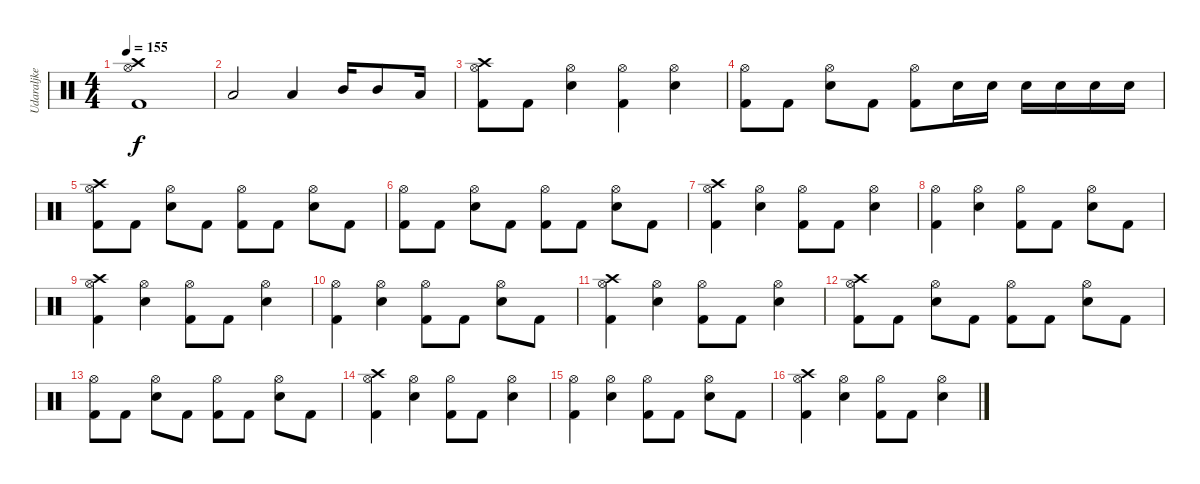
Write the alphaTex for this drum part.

\track ("Udaraljke" "Udaraljke") {instrument percussion}
\staff {score}
\articulation defaults
\ts (4 4)
\tempo 155
\clef neutral
\ks c
("Crash high (hit)" "Hi-Hat (open)" "Kick (hit) 2").1{dy f} |
"Low Tom (hit)".2 "Low Tom (hit)".4 "Mid Tom (hit)".16 "Mid Tom (hit)".8 "Low Tom (hit)".16 |
("Crash high (hit)" "Hi-Hat (open)" "Kick (hit) 2").8 "Kick (hit) 2".8 ("Hi-Hat (open)" "Electric Snare (hit)").4 ("Hi-Hat (open)" "Kick (hit) 2").4 ("Hi-Hat (open)" "Electric Snare (hit)").4 |
("Hi-Hat (open)" "Kick (hit) 2").8 "Kick (hit) 2".8 ("Electric Snare (hit)" "Hi-Hat (open)").8 "Kick (hit) 2".8 ("Hi-Hat (open)" "Kick (hit) 2").8 "Snare (hit) 2".16 "Snare (hit) 2".16 "Snare (hit) 2".16 "Snare (hit) 2".16 "Snare (hit) 2".16 "Snare (hit) 2".16 |
("Hi-Hat (open)" "Kick (hit) 2" "Crash high (hit)").8 "Kick (hit) 2".8 ("Hi-Hat (open)" "Electric Snare (hit)").8 "Kick (hit) 2".8 ("Hi-Hat (open)" "Kick (hit) 2").8 "Kick (hit) 2".8 ("Hi-Hat (open)" "Electric Snare (hit)").8 "Kick (hit) 2".8 |
("Hi-Hat (open)" "Kick (hit) 2").8 "Kick (hit) 2".8 ("Hi-Hat (open)" "Electric Snare (hit)").8 "Kick (hit) 2".8 ("Hi-Hat (open)" "Kick (hit) 2").8 "Kick (hit) 2".8 ("Hi-Hat (open)" "Electric Snare (hit)").8 "Kick (hit) 2".8 |
("Crash high (hit)" "Hi-Hat (open)" "Kick (hit) 2").4 ("Hi-Hat (open)" "Electric Snare (hit)").4 ("Hi-Hat (open)" "Kick (hit) 2").8 "Kick (hit) 2".8 ("Hi-Hat (open)" "Electric Snare (hit)").4 |
("Hi-Hat (open)" "Kick (hit) 2").4 ("Hi-Hat (open)" "Electric Snare (hit)").4 ("Hi-Hat (open)" "Kick (hit) 2").8 "Kick (hit) 2".8 ("Hi-Hat (open)" "Electric Snare (hit)").8 "Kick (hit) 2".8 |
("Crash high (hit)" "Hi-Hat (open)" "Kick (hit) 2").4 ("Hi-Hat (open)" "Electric Snare (hit)").4 ("Hi-Hat (open)" "Kick (hit) 2").8 "Kick (hit) 2".8 ("Hi-Hat (open)" "Electric Snare (hit)").4 |
("Hi-Hat (open)" "Kick (hit) 2").4 ("Hi-Hat (open)" "Electric Snare (hit)").4 ("Hi-Hat (open)" "Kick (hit) 2").8 "Kick (hit) 2".8 ("Hi-Hat (open)" "Electric Snare (hit)").8 "Kick (hit) 2".8 |
("Crash high (hit)" "Hi-Hat (open)" "Kick (hit) 2").4 ("Hi-Hat (open)" "Electric Snare (hit)").4 ("Hi-Hat (open)" "Kick (hit) 2").8 "Kick (hit) 2".8 ("Hi-Hat (open)" "Electric Snare (hit)").4 |
("Hi-Hat (open)" "Kick (hit) 2" "Crash high (hit)").8 "Kick (hit) 2".8 ("Hi-Hat (open)" "Electric Snare (hit)").8 "Kick (hit) 2".8 ("Hi-Hat (open)" "Kick (hit) 2").8 "Kick (hit) 2".8 ("Hi-Hat (open)" "Electric Snare (hit)").8 "Kick (hit) 2".8 |
("Hi-Hat (open)" "Kick (hit) 2").8 "Kick (hit) 2".8 ("Hi-Hat (open)" "Electric Snare (hit)").8 "Kick (hit) 2".8 ("Hi-Hat (open)" "Kick (hit) 2").8 "Kick (hit) 2".8 ("Hi-Hat (open)" "Electric Snare (hit)").8 "Kick (hit) 2".8 |
("Crash high (hit)" "Hi-Hat (open)" "Kick (hit) 2").4 ("Hi-Hat (open)" "Electric Snare (hit)").4 ("Hi-Hat (open)" "Kick (hit) 2").8 "Kick (hit) 2".8 ("Hi-Hat (open)" "Electric Snare (hit)").4 |
("Hi-Hat (open)" "Kick (hit) 2").4 ("Hi-Hat (open)" "Electric Snare (hit)").4 ("Hi-Hat (open)" "Kick (hit) 2").8 "Kick (hit) 2".8 ("Hi-Hat (open)" "Electric Snare (hit)").8 "Kick (hit) 2".8 |
("Crash high (hit)" "Hi-Hat (open)" "Kick (hit) 2").4 ("Hi-Hat (open)" "Electric Snare (hit)").4 ("Hi-Hat (open)" "Kick (hit) 2").8 "Kick (hit) 2".8 ("Hi-Hat (open)" "Electric Snare (hit)").4
